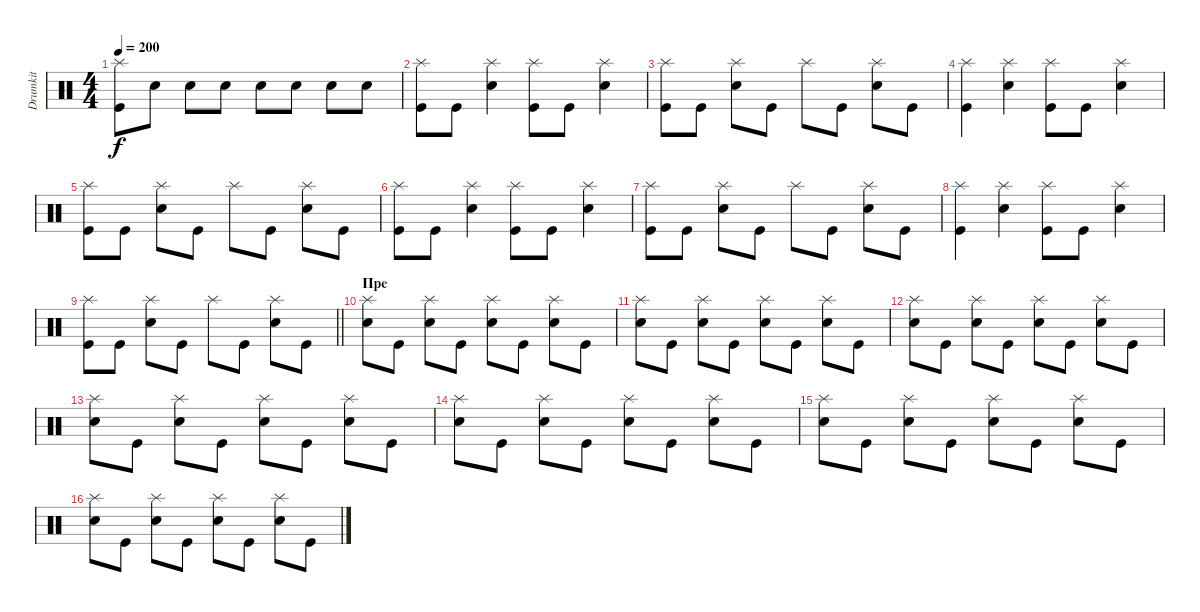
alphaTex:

\track ("Drumkit" "Drumkit") {instrument percussion}
\staff {score}
\articulation defaults
\ts (4 4)
\tempo 200
\clef neutral
\ks c
("Kick (hit)" "Splash (hit)").8{dy f} "Snare (hit) 2".8 "Snare (hit) 2".8 "Snare (hit) 2".8 "Snare (hit) 2".8 "Snare (hit) 2".8 "Snare (hit) 2".8 "Snare (hit) 2".8 |
("Kick (hit)" "Splash (hit)").8 "Kick (hit)".8 ("Snare (hit) 2" "Splash (hit)").4 ("Kick (hit)" "Splash (hit)").8 "Kick (hit)".8 ("Snare (hit) 2" "Splash (hit)").4 |
("Kick (hit)" "Splash (hit)").8 "Kick (hit)".8 ("Snare (hit) 2" "Splash (hit)").8 "Kick (hit)".8 "Splash (hit)".8 "Kick (hit)".8 ("Snare (hit) 2" "Splash (hit)").8 "Kick (hit)".8 |
("Kick (hit)" "Splash (hit)").4 ("Snare (hit) 2" "Splash (hit)").4 ("Kick (hit)" "Splash (hit)").8 "Kick (hit)".8 ("Snare (hit) 2" "Splash (hit)").4 |
("Kick (hit)" "Splash (hit)").8 "Kick (hit)".8 ("Snare (hit) 2" "Splash (hit)").8 "Kick (hit)".8 "Splash (hit)".8 "Kick (hit)".8 ("Snare (hit) 2" "Splash (hit)").8 "Kick (hit)".8 |
("Kick (hit)" "Splash (hit)").8 "Kick (hit)".8 ("Snare (hit) 2" "Splash (hit)").4 ("Kick (hit)" "Splash (hit)").8 "Kick (hit)".8 ("Snare (hit) 2" "Splash (hit)").4 |
("Kick (hit)" "Splash (hit)").8 "Kick (hit)".8 ("Snare (hit) 2" "Splash (hit)").8 "Kick (hit)".8 "Splash (hit)".8 "Kick (hit)".8 ("Snare (hit) 2" "Splash (hit)").8 "Kick (hit)".8 |
("Kick (hit)" "Splash (hit)").4 ("Snare (hit) 2" "Splash (hit)").4 ("Kick (hit)" "Splash (hit)").8 "Kick (hit)".8 ("Snare (hit) 2" "Splash (hit)").4 |
\barLineRight lightlight
("Kick (hit)" "Splash (hit)").8 "Kick (hit)".8 ("Snare (hit) 2" "Splash (hit)").8 "Kick (hit)".8 "Splash (hit)".8 "Kick (hit)".8 ("Snare (hit) 2" "Splash (hit)").8 "Kick (hit)".8 |
\section ("" "Пре")
("Snare (hit) 2" "Splash (hit)").8 "Kick (hit)".8 ("Snare (hit) 2" "Splash (hit)").8 "Kick (hit)".8 ("Snare (hit) 2" "Splash (hit)").8 "Kick (hit)".8 ("Snare (hit) 2" "Splash (hit)").8 "Kick (hit)".8 |
("Snare (hit) 2" "Splash (hit)").8 "Kick (hit)".8 ("Snare (hit) 2" "Splash (hit)").8 "Kick (hit)".8 ("Snare (hit) 2" "Splash (hit)").8 "Kick (hit)".8 ("Snare (hit) 2" "Splash (hit)").8 "Kick (hit)".8 |
("Snare (hit) 2" "Splash (hit)").8 "Kick (hit)".8 ("Snare (hit) 2" "Splash (hit)").8 "Kick (hit)".8 ("Snare (hit) 2" "Splash (hit)").8 "Kick (hit)".8 ("Snare (hit) 2" "Splash (hit)").8 "Kick (hit)".8 |
("Snare (hit) 2" "Splash (hit)").8 "Kick (hit)".8 ("Snare (hit) 2" "Splash (hit)").8 "Kick (hit)".8 ("Snare (hit) 2" "Splash (hit)").8 "Kick (hit)".8 ("Snare (hit) 2" "Splash (hit)").8 "Kick (hit)".8 |
("Snare (hit) 2" "Splash (hit)").8 "Kick (hit)".8 ("Snare (hit) 2" "Splash (hit)").8 "Kick (hit)".8 ("Snare (hit) 2" "Splash (hit)").8 "Kick (hit)".8 ("Snare (hit) 2" "Splash (hit)").8 "Kick (hit)".8 |
("Snare (hit) 2" "Splash (hit)").8 "Kick (hit)".8 ("Snare (hit) 2" "Splash (hit)").8 "Kick (hit)".8 ("Snare (hit) 2" "Splash (hit)").8 "Kick (hit)".8 ("Snare (hit) 2" "Splash (hit)").8 "Kick (hit)".8 |
("Snare (hit) 2" "Splash (hit)").8 "Kick (hit)".8 ("Snare (hit) 2" "Splash (hit)").8 "Kick (hit)".8 ("Snare (hit) 2" "Splash (hit)").8 "Kick (hit)".8 ("Snare (hit) 2" "Splash (hit)").8 "Kick (hit)".8
